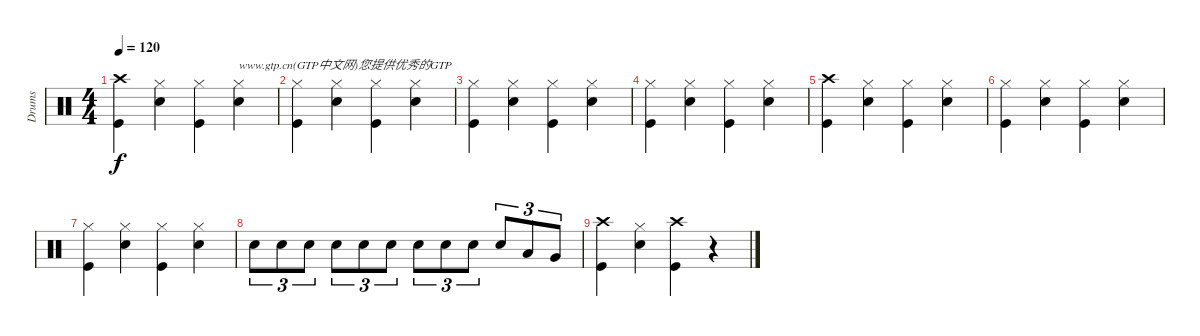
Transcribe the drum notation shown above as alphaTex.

\track ("Drums" "Drums") {instrument percussion}
\staff {score}
\articulation defaults
\ts (4 4)
\tempo 120
\clef neutral
\ks c
("Crash high (hit)" "Kick (hit)").4{dy f} ("Hi-Hat (closed)" "Electric Snare (hit)").4 ("Hi-Hat (closed)" "Kick (hit)").4 ("Hi-Hat (closed)" "Electric Snare (hit)").4{txt "www.gtp.cn(GTP中文网)您提供优秀的GTP"} |
("Hi-Hat (closed)" "Kick (hit)").4 ("Hi-Hat (closed)" "Electric Snare (hit)").4 ("Hi-Hat (closed)" "Kick (hit)").4 ("Hi-Hat (closed)" "Electric Snare (hit)").4 |
("Hi-Hat (closed)" "Kick (hit)").4 ("Hi-Hat (closed)" "Electric Snare (hit)").4 ("Hi-Hat (closed)" "Kick (hit)").4 ("Hi-Hat (closed)" "Electric Snare (hit)").4 |
("Hi-Hat (closed)" "Kick (hit)").4 ("Hi-Hat (closed)" "Electric Snare (hit)").4 ("Hi-Hat (closed)" "Kick (hit)").4 ("Hi-Hat (closed)" "Electric Snare (hit)").4 |
("Crash high (hit)" "Kick (hit)").4 ("Hi-Hat (closed)" "Electric Snare (hit)").4 ("Hi-Hat (closed)" "Kick (hit)").4 ("Hi-Hat (closed)" "Electric Snare (hit)").4 |
("Hi-Hat (closed)" "Kick (hit)").4 ("Hi-Hat (closed)" "Electric Snare (hit)").4 ("Hi-Hat (closed)" "Kick (hit)").4 ("Hi-Hat (closed)" "Electric Snare (hit)").4 |
("Hi-Hat (closed)" "Kick (hit)").4 ("Hi-Hat (closed)" "Electric Snare (hit)").4 ("Hi-Hat (closed)" "Kick (hit)").4 ("Hi-Hat (closed)" "Electric Snare (hit)").4 |
"Electric Snare (hit)".8{tu (3 2)} "Electric Snare (hit)".8{tu (3 2)} "Electric Snare (hit)".8{tu (3 2)} "Electric Snare (hit)".8{tu (3 2)} "Electric Snare (hit)".8{tu (3 2)} "Electric Snare (hit)".8{tu (3 2)} "Electric Snare (hit)".8{tu (3 2)} "Electric Snare (hit)".8{tu (3 2)} "Electric Snare (hit)".8{tu (3 2)} "Electric Snare (hit)".8{tu (3 2)} "Low Tom (hit)".8{tu (3 2)} "Very Low Tom (hit)".8{tu (3 2)} |
("Crash high (hit)" "Kick (hit)").4 ("Hi-Hat (closed)" "Electric Snare (hit)").4 ("Crash high (hit)" "Kick (hit)").4 r.4
